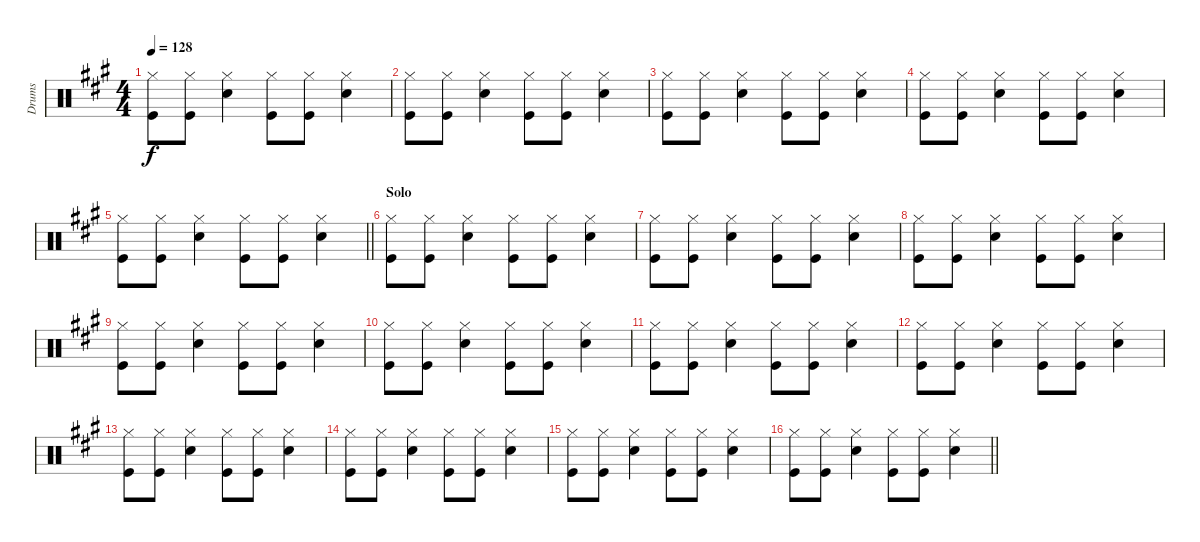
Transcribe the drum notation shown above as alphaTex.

\track ("Drums" "Drums") {instrument percussion}
\staff
\articulation defaults
\ts (4 4)
\tempo 128
\clef neutral
\ks a
("Hi-Hat (closed)" "Kick (hit)").8{dy f} ("Hi-Hat (closed)" "Kick (hit)").8 ("Hi-Hat (closed)" "Snare (hit) 2").4 ("Hi-Hat (closed)" "Kick (hit)").8 ("Hi-Hat (closed)" "Kick (hit)").8 ("Hi-Hat (closed)" "Snare (hit) 2").4 |
("Hi-Hat (closed)" "Kick (hit)").8 ("Hi-Hat (closed)" "Kick (hit)").8 ("Hi-Hat (closed)" "Snare (hit) 2").4 ("Hi-Hat (closed)" "Kick (hit)").8 ("Hi-Hat (closed)" "Kick (hit)").8 ("Hi-Hat (closed)" "Snare (hit) 2").4 |
("Hi-Hat (closed)" "Kick (hit)").8 ("Hi-Hat (closed)" "Kick (hit)").8 ("Hi-Hat (closed)" "Snare (hit) 2").4 ("Hi-Hat (closed)" "Kick (hit)").8 ("Hi-Hat (closed)" "Kick (hit)").8 ("Hi-Hat (closed)" "Snare (hit) 2").4 |
("Hi-Hat (closed)" "Kick (hit)").8 ("Hi-Hat (closed)" "Kick (hit)").8 ("Hi-Hat (closed)" "Snare (hit) 2").4 ("Hi-Hat (closed)" "Kick (hit)").8 ("Hi-Hat (closed)" "Kick (hit)").8 ("Hi-Hat (closed)" "Snare (hit) 2").4 |
\barLineRight lightlight
("Hi-Hat (closed)" "Kick (hit)").8 ("Hi-Hat (closed)" "Kick (hit)").8 ("Hi-Hat (closed)" "Snare (hit) 2").4 ("Hi-Hat (closed)" "Kick (hit)").8 ("Hi-Hat (closed)" "Kick (hit)").8 ("Hi-Hat (closed)" "Snare (hit) 2").4 |
\section ("" "Solo")
("Hi-Hat (closed)" "Kick (hit)").8 ("Hi-Hat (closed)" "Kick (hit)").8 ("Hi-Hat (closed)" "Snare (hit) 2").4 ("Hi-Hat (closed)" "Kick (hit)").8 ("Hi-Hat (closed)" "Kick (hit)").8 ("Hi-Hat (closed)" "Snare (hit) 2").4 |
("Hi-Hat (closed)" "Kick (hit)").8 ("Hi-Hat (closed)" "Kick (hit)").8 ("Hi-Hat (closed)" "Snare (hit) 2").4 ("Hi-Hat (closed)" "Kick (hit)").8 ("Hi-Hat (closed)" "Kick (hit)").8 ("Hi-Hat (closed)" "Snare (hit) 2").4 |
("Hi-Hat (closed)" "Kick (hit)").8 ("Hi-Hat (closed)" "Kick (hit)").8 ("Hi-Hat (closed)" "Snare (hit) 2").4 ("Hi-Hat (closed)" "Kick (hit)").8 ("Hi-Hat (closed)" "Kick (hit)").8 ("Hi-Hat (closed)" "Snare (hit) 2").4 |
("Hi-Hat (closed)" "Kick (hit)").8 ("Hi-Hat (closed)" "Kick (hit)").8 ("Hi-Hat (closed)" "Snare (hit) 2").4 ("Hi-Hat (closed)" "Kick (hit)").8 ("Hi-Hat (closed)" "Kick (hit)").8 ("Hi-Hat (closed)" "Snare (hit) 2").4 |
("Hi-Hat (closed)" "Kick (hit)").8 ("Hi-Hat (closed)" "Kick (hit)").8 ("Hi-Hat (closed)" "Snare (hit) 2").4 ("Hi-Hat (closed)" "Kick (hit)").8 ("Hi-Hat (closed)" "Kick (hit)").8 ("Hi-Hat (closed)" "Snare (hit) 2").4 |
("Hi-Hat (closed)" "Kick (hit)").8 ("Hi-Hat (closed)" "Kick (hit)").8 ("Hi-Hat (closed)" "Snare (hit) 2").4 ("Hi-Hat (closed)" "Kick (hit)").8 ("Hi-Hat (closed)" "Kick (hit)").8 ("Hi-Hat (closed)" "Snare (hit) 2").4 |
("Hi-Hat (closed)" "Kick (hit)").8 ("Hi-Hat (closed)" "Kick (hit)").8 ("Hi-Hat (closed)" "Snare (hit) 2").4 ("Hi-Hat (closed)" "Kick (hit)").8 ("Hi-Hat (closed)" "Kick (hit)").8 ("Hi-Hat (closed)" "Snare (hit) 2").4 |
("Hi-Hat (closed)" "Kick (hit)").8 ("Hi-Hat (closed)" "Kick (hit)").8 ("Hi-Hat (closed)" "Snare (hit) 2").4 ("Hi-Hat (closed)" "Kick (hit)").8 ("Hi-Hat (closed)" "Kick (hit)").8 ("Hi-Hat (closed)" "Snare (hit) 2").4 |
("Hi-Hat (closed)" "Kick (hit)").8 ("Hi-Hat (closed)" "Kick (hit)").8 ("Hi-Hat (closed)" "Snare (hit) 2").4 ("Hi-Hat (closed)" "Kick (hit)").8 ("Hi-Hat (closed)" "Kick (hit)").8 ("Hi-Hat (closed)" "Snare (hit) 2").4 |
("Hi-Hat (closed)" "Kick (hit)").8 ("Hi-Hat (closed)" "Kick (hit)").8 ("Hi-Hat (closed)" "Snare (hit) 2").4 ("Hi-Hat (closed)" "Kick (hit)").8 ("Hi-Hat (closed)" "Kick (hit)").8 ("Hi-Hat (closed)" "Snare (hit) 2").4 |
\barLineRight lightlight
("Hi-Hat (closed)" "Kick (hit)").8 ("Hi-Hat (closed)" "Kick (hit)").8 ("Hi-Hat (closed)" "Snare (hit) 2").4 ("Hi-Hat (closed)" "Kick (hit)").8 ("Hi-Hat (closed)" "Kick (hit)").8 ("Hi-Hat (closed)" "Snare (hit) 2").4
